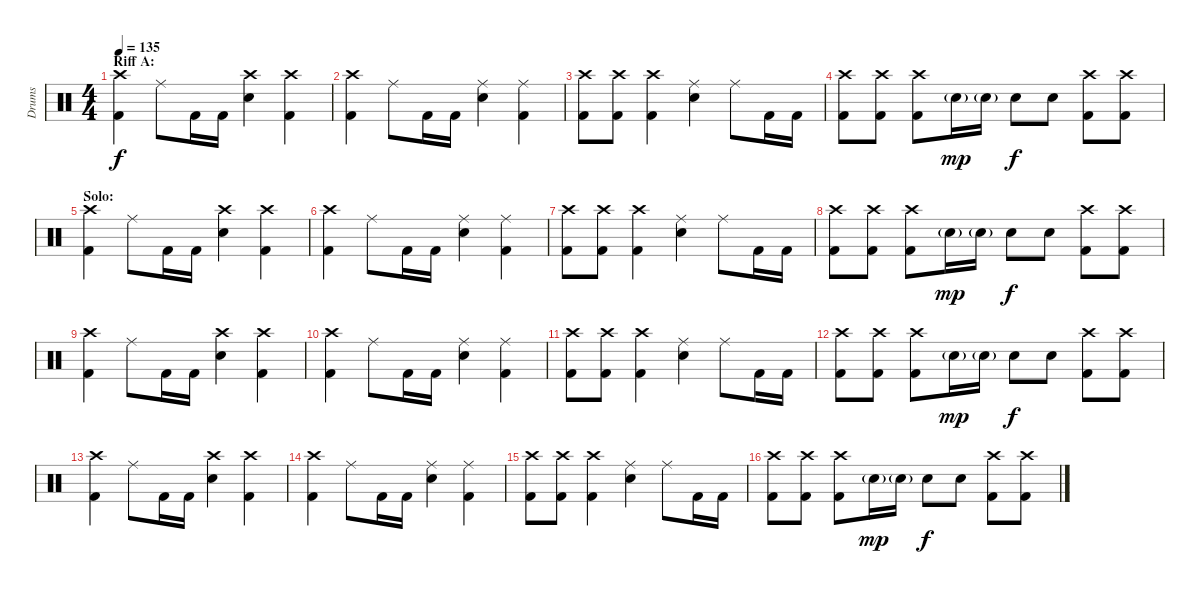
\track ("Drums" "Drums") {instrument percussion}
\staff {score}
\articulation defaults
\ts (4 4)
\section ("" "Riff A:")
\tempo 135
\clef neutral
\ks c
("Crash high (hit)" "Kick (hit) 2").4{dy f} "Ride (middle)".8 "Kick (hit) 2".16 "Kick (hit) 2".16 ("Crash high (hit)" "Electric Snare (hit)").4 ("Crash high (hit)" "Kick (hit) 2").4 |
("Crash high (hit)" "Kick (hit) 2").4 "Ride (middle)".8 "Kick (hit) 2".16 "Kick (hit) 2".16 ("Ride (middle)" "Electric Snare (hit)").4 ("Ride (middle)" "Kick (hit) 2").4 |
("Crash high (hit)" "Kick (hit) 2").8 ("Crash high (hit)" "Kick (hit) 2").8 ("Crash high (hit)" "Kick (hit) 2").4 ("Ride (middle)" "Electric Snare (hit)").4 "Ride (middle)".8 "Kick (hit) 2".16 "Kick (hit) 2".16 |
("Crash high (hit)" "Kick (hit) 2").8 ("Crash high (hit)" "Kick (hit) 2").8 ("Crash high (hit)" "Kick (hit) 2").8 "Electric Snare (hit)"{g}.16{dy mp} "Electric Snare (hit)"{g}.16 "Electric Snare (hit)".8{dy f} "Electric Snare (hit)".8 ("Crash high (hit)" "Kick (hit) 2").8 ("Crash high (hit)" "Kick (hit) 2").8 |
\section ("" "Solo:")
("Crash high (hit)" "Kick (hit) 2").4 "Ride (middle)".8 "Kick (hit) 2".16 "Kick (hit) 2".16 ("Crash high (hit)" "Electric Snare (hit)").4 ("Crash high (hit)" "Kick (hit) 2").4 |
("Crash high (hit)" "Kick (hit) 2").4 "Ride (middle)".8 "Kick (hit) 2".16 "Kick (hit) 2".16 ("Ride (middle)" "Electric Snare (hit)").4 ("Ride (middle)" "Kick (hit) 2").4 |
("Crash high (hit)" "Kick (hit) 2").8 ("Crash high (hit)" "Kick (hit) 2").8 ("Crash high (hit)" "Kick (hit) 2").4 ("Ride (middle)" "Electric Snare (hit)").4 "Ride (middle)".8 "Kick (hit) 2".16 "Kick (hit) 2".16 |
("Crash high (hit)" "Kick (hit) 2").8 ("Crash high (hit)" "Kick (hit) 2").8 ("Crash high (hit)" "Kick (hit) 2").8 "Electric Snare (hit)"{g}.16{dy mp} "Electric Snare (hit)"{g}.16 "Electric Snare (hit)".8{dy f} "Electric Snare (hit)".8 ("Crash high (hit)" "Kick (hit) 2").8 ("Crash high (hit)" "Kick (hit) 2").8 |
("Crash high (hit)" "Kick (hit) 2").4 "Ride (middle)".8 "Kick (hit) 2".16 "Kick (hit) 2".16 ("Crash high (hit)" "Electric Snare (hit)").4 ("Crash high (hit)" "Kick (hit) 2").4 |
("Crash high (hit)" "Kick (hit) 2").4 "Ride (middle)".8 "Kick (hit) 2".16 "Kick (hit) 2".16 ("Ride (middle)" "Electric Snare (hit)").4 ("Ride (middle)" "Kick (hit) 2").4 |
("Crash high (hit)" "Kick (hit) 2").8 ("Crash high (hit)" "Kick (hit) 2").8 ("Crash high (hit)" "Kick (hit) 2").4 ("Ride (middle)" "Electric Snare (hit)").4 "Ride (middle)".8 "Kick (hit) 2".16 "Kick (hit) 2".16 |
("Crash high (hit)" "Kick (hit) 2").8 ("Crash high (hit)" "Kick (hit) 2").8 ("Crash high (hit)" "Kick (hit) 2").8 "Electric Snare (hit)"{g}.16{dy mp} "Electric Snare (hit)"{g}.16 "Electric Snare (hit)".8{dy f} "Electric Snare (hit)".8 ("Crash high (hit)" "Kick (hit) 2").8 ("Crash high (hit)" "Kick (hit) 2").8 |
("Crash high (hit)" "Kick (hit) 2").4 "Ride (middle)".8 "Kick (hit) 2".16 "Kick (hit) 2".16 ("Crash high (hit)" "Electric Snare (hit)").4 ("Crash high (hit)" "Kick (hit) 2").4 |
("Crash high (hit)" "Kick (hit) 2").4 "Ride (middle)".8 "Kick (hit) 2".16 "Kick (hit) 2".16 ("Ride (middle)" "Electric Snare (hit)").4 ("Ride (middle)" "Kick (hit) 2").4 |
("Crash high (hit)" "Kick (hit) 2").8 ("Crash high (hit)" "Kick (hit) 2").8 ("Crash high (hit)" "Kick (hit) 2").4 ("Ride (middle)" "Electric Snare (hit)").4 "Ride (middle)".8 "Kick (hit) 2".16 "Kick (hit) 2".16 |
("Crash high (hit)" "Kick (hit) 2").8 ("Crash high (hit)" "Kick (hit) 2").8 ("Crash high (hit)" "Kick (hit) 2").8 "Electric Snare (hit)"{g}.16{dy mp} "Electric Snare (hit)"{g}.16 "Electric Snare (hit)".8{dy f} "Electric Snare (hit)".8 ("Crash high (hit)" "Kick (hit) 2").8 ("Crash high (hit)" "Kick (hit) 2").8
